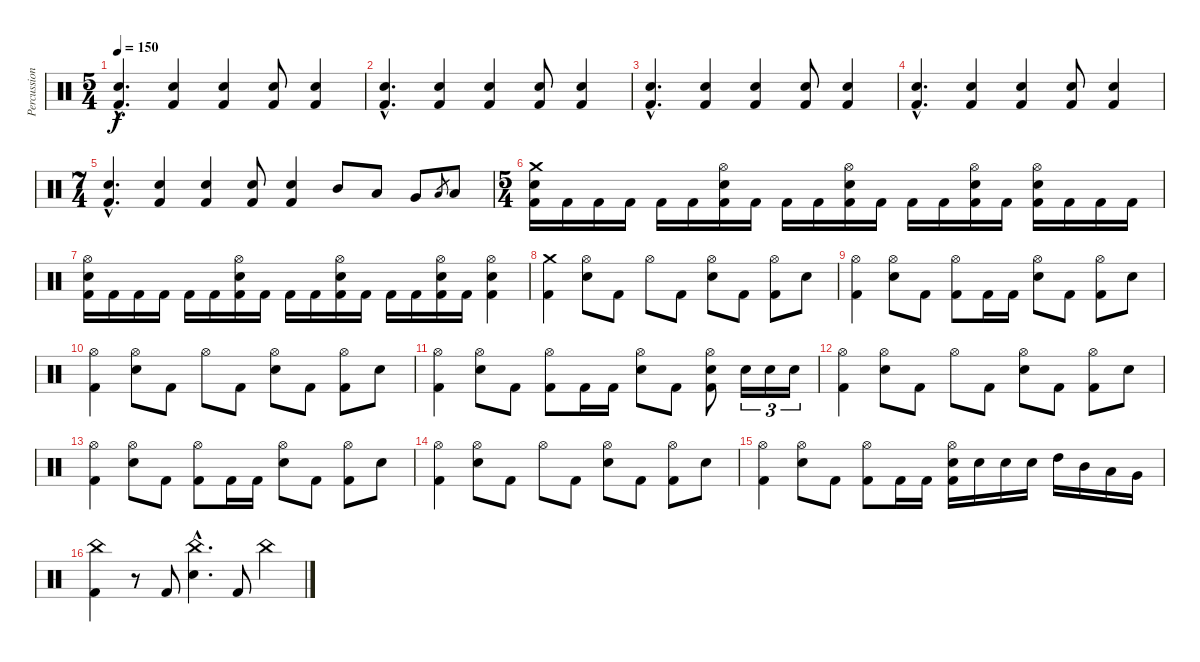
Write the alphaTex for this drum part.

\track ("Percussion" "Percussion") {instrument percussion}
\staff {score}
\articulation defaults
\ts (5 4)
\tempo 150
\clef neutral
\ks aminor
("Electric Snare (hit)"{tr (40 16) hac} "Kick (hit) 2"{hac}).4{d dy f} ("Electric Snare (hit)"{tr (40 16)} "Kick (hit) 2").4 ("Electric Snare (hit)"{tr (40 16)} "Kick (hit) 2").4 ("Electric Snare (hit)"{tr (40 16)} "Kick (hit) 2").8 ("Electric Snare (hit)"{tr (40 16)} "Kick (hit) 2").4 |
("Electric Snare (hit)"{tr (40 16) hac} "Kick (hit) 2"{hac}).4{d} ("Electric Snare (hit)"{tr (40 16)} "Kick (hit) 2").4 ("Electric Snare (hit)"{tr (40 16)} "Kick (hit) 2").4 ("Electric Snare (hit)"{tr (40 16)} "Kick (hit) 2").8 ("Electric Snare (hit)"{tr (40 16)} "Kick (hit) 2").4 |
("Electric Snare (hit)"{tr (40 16) hac} "Kick (hit) 2"{hac}).4{d} ("Electric Snare (hit)"{tr (40 16)} "Kick (hit) 2").4 ("Electric Snare (hit)"{tr (40 16)} "Kick (hit) 2").4 ("Electric Snare (hit)"{tr (40 16)} "Kick (hit) 2").8 ("Electric Snare (hit)"{tr (40 16)} "Kick (hit) 2").4 |
("Electric Snare (hit)"{tr (40 16) hac} "Kick (hit) 2"{hac}).4{d} ("Electric Snare (hit)"{tr (40 16)} "Kick (hit) 2").4 ("Electric Snare (hit)"{tr (40 16)} "Kick (hit) 2").4 ("Electric Snare (hit)"{tr (40 16)} "Kick (hit) 2").8 ("Electric Snare (hit)"{tr (40 16)} "Kick (hit) 2").4 |
\ts (7 4)
("Electric Snare (hit)"{tr (40 16) hac} "Kick (hit) 2"{hac}).4{d} ("Electric Snare (hit)"{tr (40 16)} "Kick (hit) 2").4 ("Electric Snare (hit)"{tr (40 16)} "Kick (hit) 2").4 ("Electric Snare (hit)"{tr (40 16)} "Kick (hit) 2").8 ("Electric Snare (hit)"{tr (40 16)} "Kick (hit) 2").4 "Mid Tom (hit)".8 "Low Tom (hit)".8 "Very Low Tom (hit)".8 "Low Floor Tom (hit)".8{gr} "Low Floor Tom (hit)".8 |
\ts (5 4)
("Crash medium (hit)" "Electric Snare (hit)" "Kick (hit) 2").16 "Kick (hit) 2".16 "Kick (hit) 2".16 "Kick (hit) 2".16 "Kick (hit) 2".16 "Kick (hit) 2".16 ("Hi-Hat (open)" "Electric Snare (hit)" "Kick (hit) 2").16 "Kick (hit) 2".16 "Kick (hit) 2".16 "Kick (hit) 2".16 ("Hi-Hat (open)" "Electric Snare (hit)" "Kick (hit) 2").16 "Kick (hit) 2".16 "Kick (hit) 2".16 "Kick (hit) 2".16 ("Hi-Hat (open)" "Electric Snare (hit)" "Kick (hit) 2").16 "Kick (hit) 2".16 ("Hi-Hat (open)" "Electric Snare (hit)" "Kick (hit) 2").16 "Kick (hit) 2".16 "Kick (hit) 2".16 "Kick (hit) 2".16 |
("Hi-Hat (open)" "Electric Snare (hit)" "Kick (hit) 2").16 "Kick (hit) 2".16 "Kick (hit) 2".16 "Kick (hit) 2".16 "Kick (hit) 2".16 "Kick (hit) 2".16 ("Hi-Hat (open)" "Electric Snare (hit)" "Kick (hit) 2").16 "Kick (hit) 2".16 "Kick (hit) 2".16 "Kick (hit) 2".16 ("Hi-Hat (open)" "Electric Snare (hit)" "Kick (hit) 2").16 "Kick (hit) 2".16 "Kick (hit) 2".16 "Kick (hit) 2".16 ("Hi-Hat (open)" "Electric Snare (hit)" "Kick (hit) 2").16 "Kick (hit) 2".16 ("Hi-Hat (open)" "Electric Snare (hit)" "Kick (hit) 2").4 |
("Crash medium (hit)" "Kick (hit) 2").4 ("Hi-Hat (open)" "Electric Snare (hit)").8 "Kick (hit) 2".8 "Hi-Hat (open)".8 "Kick (hit) 2".8 ("Hi-Hat (open)" "Electric Snare (hit)").8 "Kick (hit) 2".8 ("Hi-Hat (open)" "Kick (hit) 2").8 "Electric Snare (hit)".8 |
("Hi-Hat (open)" "Kick (hit) 2").4 ("Hi-Hat (open)" "Electric Snare (hit)").8 "Kick (hit) 2".8 ("Hi-Hat (open)" "Kick (hit) 2").8 "Kick (hit) 2".16 "Kick (hit) 2".16 ("Hi-Hat (open)" "Electric Snare (hit)").8 "Kick (hit) 2".8 ("Hi-Hat (open)" "Kick (hit) 2").8 "Electric Snare (hit)".8 |
("Hi-Hat (open)" "Kick (hit) 2").4 ("Hi-Hat (open)" "Electric Snare (hit)").8 "Kick (hit) 2".8 "Hi-Hat (open)".8 "Kick (hit) 2".8 ("Hi-Hat (open)" "Electric Snare (hit)").8 "Kick (hit) 2".8 ("Hi-Hat (open)" "Kick (hit) 2").8 "Electric Snare (hit)".8 |
("Hi-Hat (open)" "Kick (hit) 2").4 ("Hi-Hat (open)" "Electric Snare (hit)").8 "Kick (hit) 2".8 ("Hi-Hat (open)" "Kick (hit) 2").8 "Kick (hit) 2".16 "Kick (hit) 2".16 ("Hi-Hat (open)" "Electric Snare (hit)").8 "Kick (hit) 2".8 ("Hi-Hat (open)" "Electric Snare (hit)" "Kick (hit) 2").8 "Electric Snare (hit)".16{tu (3 2)} "Electric Snare (hit)".16{tu (3 2)} "Electric Snare (hit)".16{tu (3 2)} |
("Hi-Hat (open)" "Kick (hit) 2").4 ("Hi-Hat (open)" "Electric Snare (hit)").8 "Kick (hit) 2".8 "Hi-Hat (open)".8 "Kick (hit) 2".8 ("Hi-Hat (open)" "Electric Snare (hit)").8 "Kick (hit) 2".8 ("Hi-Hat (open)" "Kick (hit) 2").8 "Electric Snare (hit)".8 |
("Hi-Hat (open)" "Kick (hit) 2").4 ("Hi-Hat (open)" "Electric Snare (hit)").8 "Kick (hit) 2".8 ("Hi-Hat (open)" "Kick (hit) 2").8 "Kick (hit) 2".16 "Kick (hit) 2".16 ("Hi-Hat (open)" "Electric Snare (hit)").8 "Kick (hit) 2".8 ("Hi-Hat (open)" "Kick (hit) 2").8 "Electric Snare (hit)".8 |
("Hi-Hat (open)" "Kick (hit) 2").4 ("Hi-Hat (open)" "Electric Snare (hit)").8 "Kick (hit) 2".8 "Hi-Hat (open)".8 "Kick (hit) 2".8 ("Hi-Hat (open)" "Electric Snare (hit)").8 "Kick (hit) 2".8 ("Hi-Hat (open)" "Kick (hit) 2").8 "Electric Snare (hit)".8 |
("Hi-Hat (open)" "Kick (hit) 2").4 ("Hi-Hat (open)" "Electric Snare (hit)").8 "Kick (hit) 2".8 ("Hi-Hat (open)" "Kick (hit) 2").8 "Kick (hit) 2".16 "Kick (hit) 2".16 ("Hi-Hat (open)" "Electric Snare (hit)" "Kick (hit) 2").16 "Electric Snare (hit)".16 "Electric Snare (hit)".16 "Electric Snare (hit)".16 "High Tom (hit)".16 "Mid Tom (hit)".16 "Low Tom (hit)".16 "Very Low Tom (hit)".16 |
("China (hit)" "Kick (hit) 2").4 r.8 "Kick (hit) 2".8 ("China (hit)"{hac} "Electric Snare (hit)"{hac}).4{d} "Kick (hit) 2".8 "China (hit)".4
